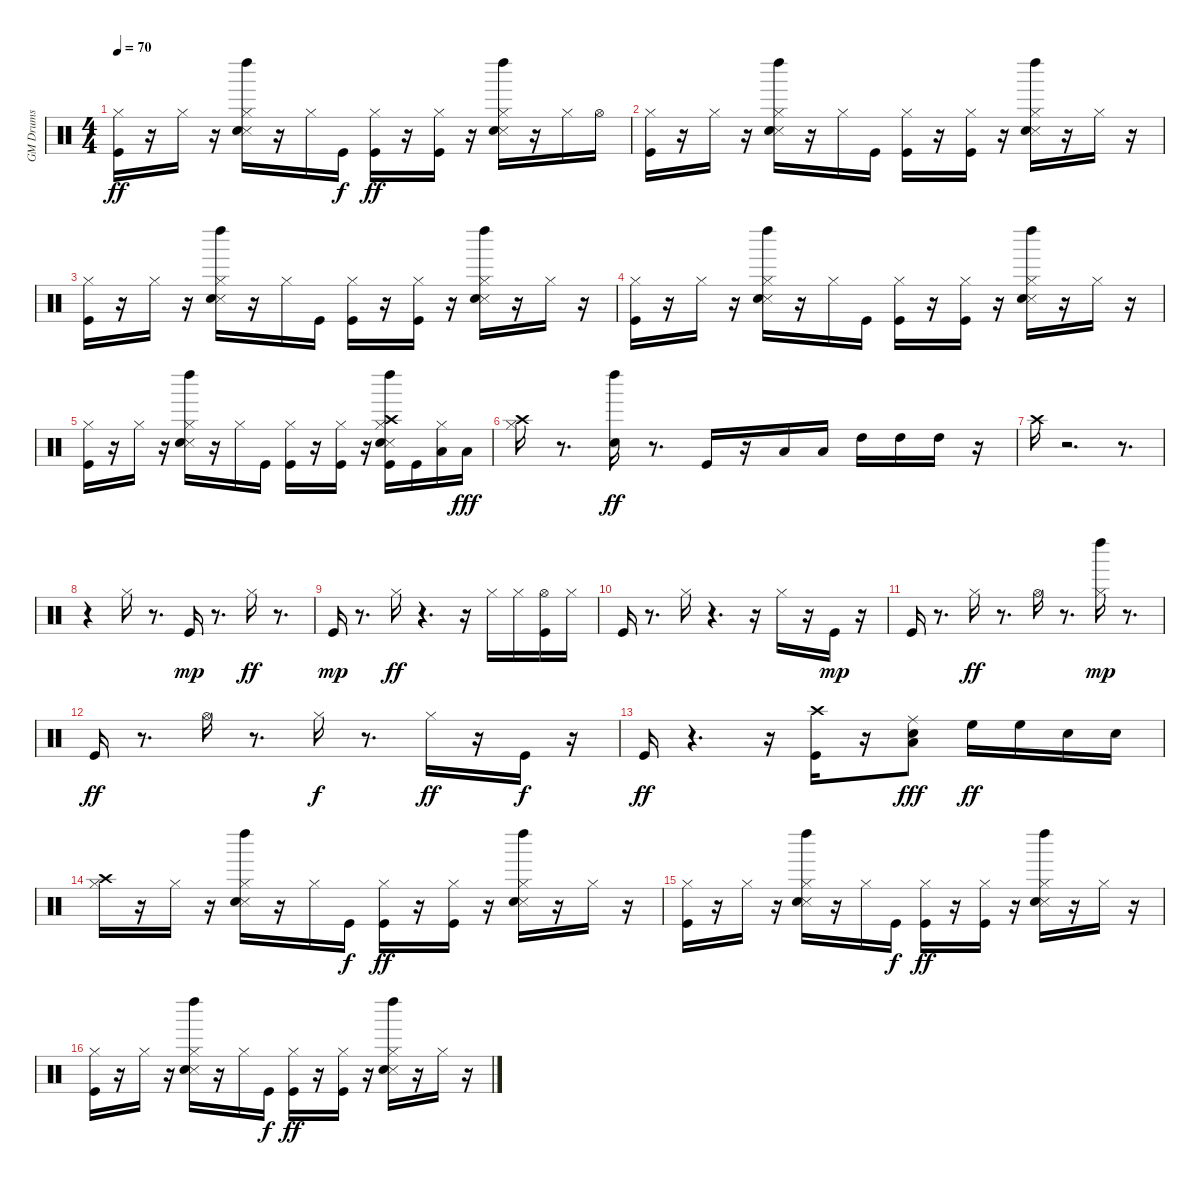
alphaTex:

\track ("GM Drums" "GM Drums") {instrument percussion}
\staff {score}
\articulation defaults
\ts (4 4)
\tempo 70
\clef neutral
\ks c
("Kick (hit)" "Hi-Hat (closed)").16{dy ff} r.16 "Hi-Hat (closed)".16 r.16 ("Snare (side stick) 3" "Snare (hit) 2" "Hi-Hat (closed)" "Left Maraca (hit)").16 r.16 "Hi-Hat (closed)".16 "Kick (hit)".16{dy f} ("Kick (hit)" "Hi-Hat (closed)").16{dy ff} r.16 ("Kick (hit)" "Hi-Hat (closed)").16 r.16 ("Snare (side stick) 3" "Snare (hit) 2" "Hi-Hat (closed)" "Left Maraca (hit)").16 r.16 "Hi-Hat (closed)".16 "Hi-Hat (open)".16 |
("Kick (hit)" "Hi-Hat (closed)").16 r.16 "Hi-Hat (closed)".16 r.16 ("Snare (side stick) 3" "Snare (hit) 2" "Hi-Hat (closed)" "Left Maraca (hit)").16 r.16 "Hi-Hat (closed)".16 "Kick (hit)".16 ("Kick (hit)" "Hi-Hat (closed)").16 r.16 ("Kick (hit)" "Hi-Hat (closed)").16 r.16 ("Snare (side stick) 3" "Snare (hit) 2" "Hi-Hat (closed)" "Left Maraca (hit)").16 r.16 "Hi-Hat (closed)".16 r.16 |
("Kick (hit)" "Hi-Hat (closed)").16 r.16 "Hi-Hat (closed)".16 r.16 ("Snare (side stick) 3" "Snare (hit) 2" "Hi-Hat (closed)" "Left Maraca (hit)").16 r.16 "Hi-Hat (closed)".16 "Kick (hit)".16 ("Kick (hit)" "Hi-Hat (closed)").16 r.16 ("Kick (hit)" "Hi-Hat (closed)").16 r.16 ("Snare (side stick) 3" "Snare (hit) 2" "Hi-Hat (closed)" "Left Maraca (hit)").16 r.16 "Hi-Hat (closed)".16 r.16 |
("Kick (hit)" "Hi-Hat (closed)").16 r.16 "Hi-Hat (closed)".16 r.16 ("Snare (side stick) 3" "Snare (hit) 2" "Hi-Hat (closed)" "Left Maraca (hit)").16 r.16 "Hi-Hat (closed)".16 "Kick (hit)".16 ("Kick (hit)" "Hi-Hat (closed)").16 r.16 ("Kick (hit)" "Hi-Hat (closed)").16 r.16 ("Snare (side stick) 3" "Snare (hit) 2" "Hi-Hat (closed)" "Left Maraca (hit)").16 r.16 "Hi-Hat (closed)".16 r.16 |
("Kick (hit)" "Hi-Hat (closed)").16 r.16 "Hi-Hat (closed)".16 r.16 ("Snare (side stick) 3" "Snare (hit) 2" "Hi-Hat (closed)" "Left Maraca (hit)").16 r.16 "Hi-Hat (closed)".16 "Kick (hit)".16 ("Kick (hit)" "Hi-Hat (closed)").16 r.16 ("Kick (hit)" "Hi-Hat (closed)").16 r.16 ("Kick (hit)" "Snare (side stick) 3" "Snare (hit) 2" "Hi-Hat (closed)" "Crash high (hit)" "Left Maraca (hit)").16 "Kick (hit)".16 ("Low Floor Tom (hit)" "Hi-Hat (closed)").16 "Low Floor Tom (hit)".16{dy fff} |
("Hi-Hat (closed)" "Crash high (hit)").16 r.8{d} ("Snare (hit) 2" "Left Maraca (hit)").16{dy ff} r.8{d} "Kick (hit)".16 r.16 "Low Floor Tom (hit)".16 "Low Floor Tom (hit)".16 "High Tom (hit)".16 "High Tom (hit)".16 "High Tom (hit)".16 r.16 |
"Crash high (hit)".16 r.2{d} r.8{d} |
r.4 "Hi-Hat (closed)".16 r.8{d} "Kick (hit)".16{dy mp} r.8{d} "Hi-Hat (closed)".16{dy ff} r.8{d} |
"Kick (hit)".16{dy mp} r.8{d} "Hi-Hat (closed)".16{dy ff} r.4{d} r.16 "Hi-Hat (closed)".16 "Hi-Hat (closed)".16 ("Kick (hit)" "Hi-Hat (open)").16 "Hi-Hat (closed)".16 |
"Kick (hit)".16 r.8{d} "Hi-Hat (closed)".16 r.4{d} r.16 "Hi-Hat (closed)".16 r.16 "Kick (hit)".16{dy mp} r.16 |
"Kick (hit)".16 r.8{d} "Hi-Hat (closed)".16{dy ff} r.8{d} "Hi-Hat (open)".16 r.8{d} ("Hi-Hat (closed)" "Left Maraca (hit)").16{dy mp} r.8{d} |
"Kick (hit)".16{dy ff} r.8{d} "Hi-Hat (open)".16 r.8{d} "Hi-Hat (closed)".16{dy f} r.8{d} "Hi-Hat (closed)".16{dy ff} r.16 "Kick (hit)".16{dy f} r.16 |
"Kick (hit)".16{dy ff} r.4{d} r.16 ("Kick (hit)" "Crash high (hit)").16 r.16 ("Snare (hit) 2" "Ride (middle)" "Low Tom (hit)").8{dy fff} "High Floor Tom (hit)".16{dy ff} "High Floor Tom (hit)".16 "Snare (hit) 2".16 "Snare (hit) 2".16 |
("Hi-Hat (closed)" "Crash high (hit)").16 r.16 "Hi-Hat (closed)".16 r.16 ("Snare (side stick) 3" "Snare (hit) 2" "Hi-Hat (closed)" "Left Maraca (hit)").16 r.16 "Hi-Hat (closed)".16 "Kick (hit)".16{dy f} ("Kick (hit)" "Hi-Hat (closed)").16{dy ff} r.16 ("Kick (hit)" "Hi-Hat (closed)").16 r.16 ("Snare (side stick) 3" "Snare (hit) 2" "Hi-Hat (closed)" "Left Maraca (hit)").16 r.16 "Hi-Hat (closed)".16 r.16 |
("Kick (hit)" "Hi-Hat (closed)").16 r.16 "Hi-Hat (closed)".16 r.16 ("Snare (side stick) 3" "Snare (hit) 2" "Hi-Hat (closed)" "Left Maraca (hit)").16 r.16 "Hi-Hat (closed)".16 "Kick (hit)".16{dy f} ("Kick (hit)" "Hi-Hat (closed)").16{dy ff} r.16 ("Kick (hit)" "Hi-Hat (closed)").16 r.16 ("Snare (side stick) 3" "Snare (hit) 2" "Hi-Hat (closed)" "Left Maraca (hit)").16 r.16 "Hi-Hat (closed)".16 r.16 |
("Kick (hit)" "Hi-Hat (closed)").16 r.16 "Hi-Hat (closed)".16 r.16 ("Snare (side stick) 3" "Snare (hit) 2" "Hi-Hat (closed)" "Left Maraca (hit)").16 r.16 "Hi-Hat (closed)".16 "Kick (hit)".16{dy f} ("Kick (hit)" "Hi-Hat (closed)").16{dy ff} r.16 ("Kick (hit)" "Hi-Hat (closed)").16 r.16 ("Snare (side stick) 3" "Snare (hit) 2" "Hi-Hat (closed)" "Left Maraca (hit)").16 r.16 "Hi-Hat (closed)".16 r.16
